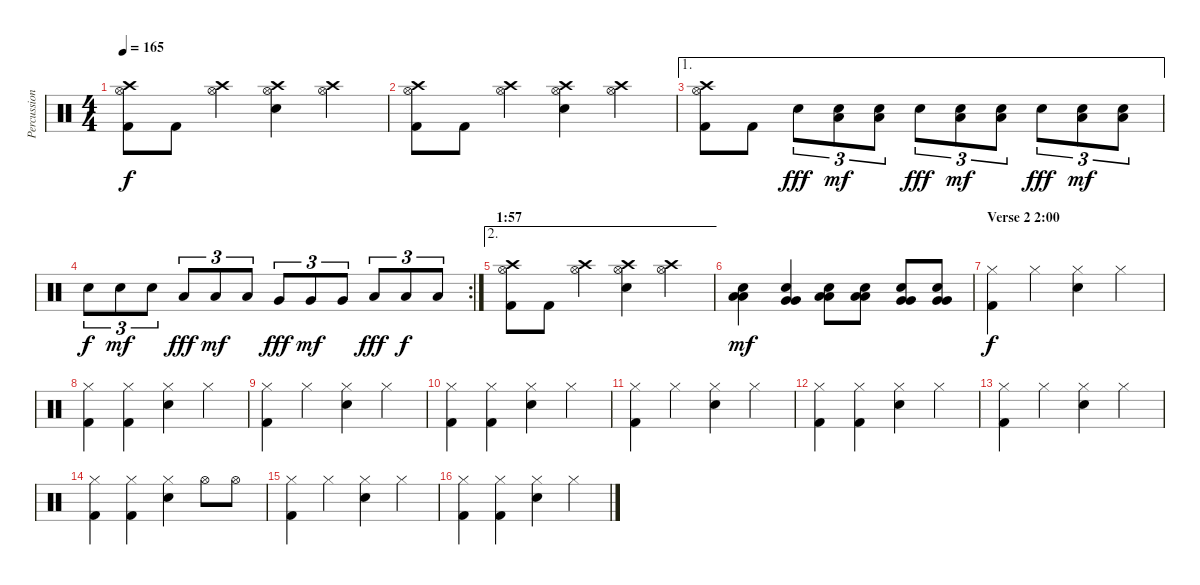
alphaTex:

\track ("Percussion" "Percussion") {instrument percussion}
\staff {score}
\articulation defaults
\ts (4 4)
\tempo 165
\clef neutral
\ks c
("Hi-Hat (open)" "Crash high (hit)" "Kick (hit) 2").8{dy f} "Kick (hit) 2".8 ("Hi-Hat (open)" "Crash high (hit)").4 ("Hi-Hat (open)" "Crash high (hit)" "Electric Snare (hit)").4 ("Hi-Hat (open)" "Crash high (hit)").4 |
("Hi-Hat (open)" "Crash high (hit)" "Kick (hit) 2").8 "Kick (hit) 2".8 ("Hi-Hat (open)" "Crash high (hit)").4 ("Hi-Hat (open)" "Crash high (hit)" "Electric Snare (hit)").4 ("Hi-Hat (open)" "Crash high (hit)").4 |
\ae 1
("Hi-Hat (open)" "Crash high (hit)" "Kick (hit) 2").8 "Kick (hit) 2".8 "Electric Snare (hit)".8{tu (3 2) dy fff} ("Electric Snare (hit)" "Low Tom (hit)").8{tu (3 2) dy mf} ("Electric Snare (hit)" "Low Tom (hit)").8{tu (3 2)} "Electric Snare (hit)".8{tu (3 2) dy fff} ("Electric Snare (hit)" "Low Tom (hit)").8{tu (3 2) dy mf} ("Electric Snare (hit)" "Low Tom (hit)").8{tu (3 2)} "Electric Snare (hit)".8{tu (3 2) dy fff} ("Electric Snare (hit)" "Low Tom (hit)").8{tu (3 2) dy mf} ("Electric Snare (hit)" "Low Tom (hit)").8{tu (3 2)} |
\rc 2 "Electric Snare (hit)".8{tu (3 2) dy f} "Electric Snare (hit)".8{tu (3 2) dy mf} "Electric Snare (hit)".8{tu (3 2)} "Low Tom (hit)".8{tu (3 2) dy fff} "Low Tom (hit)".8{tu (3 2) dy mf} "Low Tom (hit)".8{tu (3 2)} "Very Low Tom (hit)".8{tu (3 2) dy fff} "Very Low Tom (hit)".8{tu (3 2) dy mf} "Very Low Tom (hit)".8{tu (3 2)} "Low Floor Tom (hit)".8{tu (3 2) dy fff} "Low Floor Tom (hit)".8{tu (3 2) dy f} "Low Floor Tom (hit)".8{tu (3 2)}
|
\ae 2
\section ("" "1:57")
("Hi-Hat (open)" "Crash high (hit)" "Kick (hit) 2").8 "Kick (hit) 2".8 ("Hi-Hat (open)" "Crash high (hit)").4 ("Hi-Hat (open)" "Crash high (hit)" "Electric Snare (hit)").4 ("Hi-Hat (open)" "Crash high (hit)").4 |
("Low Tom (hit)" "Low Tom (hit)" "Electric Snare (hit)").4{dy mf} ("Very Low Tom (hit)" "Very Low Tom (hit)" "Electric Snare (hit)").4 ("Low Tom (hit)" "Low Tom (hit)" "Electric Snare (hit)").8 ("Low Tom (hit)" "Low Tom (hit)" "Electric Snare (hit)").8 ("Very Low Tom (hit)" "Very Low Tom (hit)" "Electric Snare (hit)").8 ("Very Low Tom (hit)" "Very Low Tom (hit)" "Electric Snare (hit)").8 |
\section ("" "Verse 2 2:00")
("Hi-Hat (closed)" "Kick (hit) 2").4{dy f} "Hi-Hat (closed)".4 ("Hi-Hat (closed)" "Electric Snare (hit)").4 "Hi-Hat (closed)".4 |
("Hi-Hat (closed)" "Kick (hit) 2").4 ("Hi-Hat (closed)" "Kick (hit) 2").4 ("Hi-Hat (closed)" "Electric Snare (hit)").4 "Hi-Hat (closed)".4 |
("Hi-Hat (closed)" "Kick (hit) 2").4 "Hi-Hat (closed)".4 ("Hi-Hat (closed)" "Electric Snare (hit)").4 "Hi-Hat (closed)".4 |
("Hi-Hat (closed)" "Kick (hit) 2").4 ("Hi-Hat (closed)" "Kick (hit) 2").4 ("Hi-Hat (closed)" "Electric Snare (hit)").4 "Hi-Hat (closed)".4 |
("Hi-Hat (closed)" "Kick (hit) 2").4 "Hi-Hat (closed)".4 ("Hi-Hat (closed)" "Electric Snare (hit)").4 "Hi-Hat (closed)".4 |
("Hi-Hat (closed)" "Kick (hit) 2").4 ("Hi-Hat (closed)" "Kick (hit) 2").4 ("Hi-Hat (closed)" "Electric Snare (hit)").4 "Hi-Hat (closed)".4 |
("Hi-Hat (closed)" "Kick (hit) 2").4 "Hi-Hat (closed)".4 ("Hi-Hat (closed)" "Electric Snare (hit)").4 "Hi-Hat (closed)".4 |
("Hi-Hat (closed)" "Kick (hit) 2").4 ("Hi-Hat (closed)" "Kick (hit) 2").4 ("Hi-Hat (closed)" "Electric Snare (hit)").4 "Hi-Hat (open)".8 "Hi-Hat (open)".8 |
("Hi-Hat (closed)" "Kick (hit) 2").4 "Hi-Hat (closed)".4 ("Hi-Hat (closed)" "Electric Snare (hit)").4 "Hi-Hat (closed)".4 |
("Hi-Hat (closed)" "Kick (hit) 2").4 ("Hi-Hat (closed)" "Kick (hit) 2").4 ("Hi-Hat (closed)" "Electric Snare (hit)").4 "Hi-Hat (closed)".4
